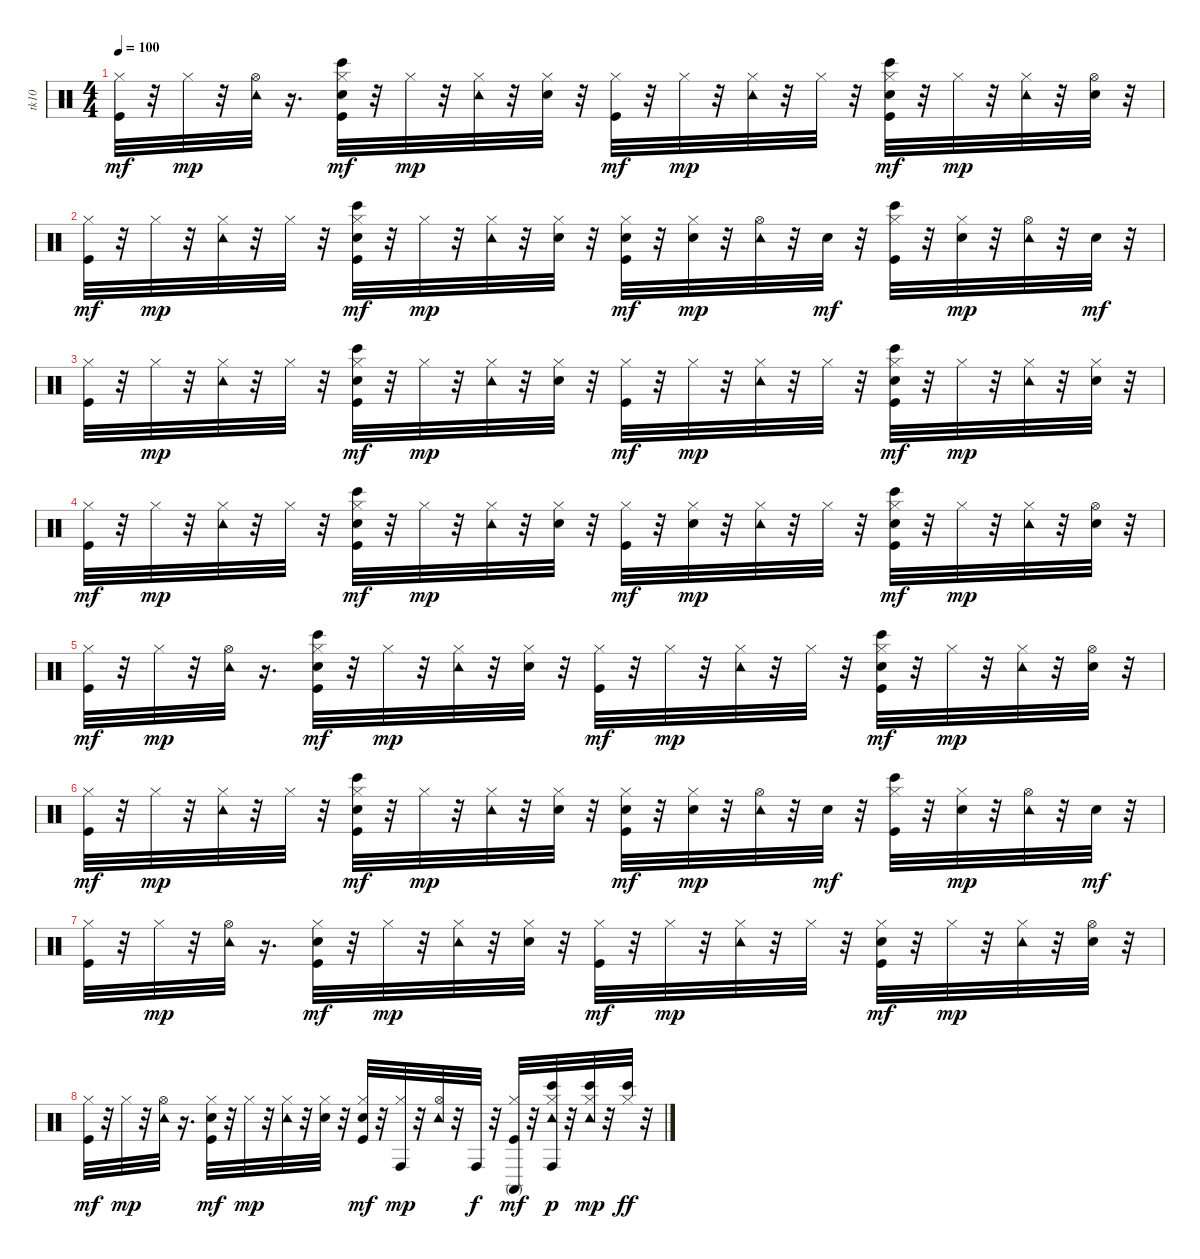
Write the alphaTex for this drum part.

\track ("tk10" "tk10") {instrument percussion}
\staff {score}
\articulation defaults
\ts (4 4)
\tempo 100
\clef neutral
\ks c
("Kick (hit)" "Hi-Hat (closed)").32{dy mf} r.32 "Hi-Hat (closed)".32{dy mp} r.32 ("Hi-Hat (open)" "Tambourine (hit)").32 r.16{d} ("Kick (hit)" "Snare (hit) 2" "Hi-Hat (closed)" "Bongo High (hit)").32{dy mf} r.32 "Hi-Hat (closed)".32{dy mp} r.32 ("Hi-Hat (closed)" "Tambourine (hit)").32 r.32 ("Snare (hit) 2" "Hi-Hat (closed)").32 r.32 ("Kick (hit)" "Hi-Hat (closed)").32{dy mf} r.32 "Hi-Hat (closed)".32{dy mp} r.32 ("Hi-Hat (closed)" "Tambourine (hit)").32 r.32 "Hi-Hat (closed)".32 r.32 ("Kick (hit)" "Snare (hit) 2" "Hi-Hat (closed)" "Bongo High (hit)").32{dy mf} r.32 "Hi-Hat (closed)".32{dy mp} r.32 ("Hi-Hat (closed)" "Tambourine (hit)").32 r.32 ("Snare (hit) 2" "Hi-Hat (open)").32 r.32 |
("Kick (hit)" "Hi-Hat (closed)").32{dy mf} r.32 "Hi-Hat (closed)".32{dy mp} r.32 ("Hi-Hat (closed)" "Tambourine (hit)").32 r.32 "Hi-Hat (closed)".32 r.32 ("Kick (hit)" "Snare (hit) 2" "Hi-Hat (closed)" "Bongo High (hit)").32{dy mf} r.32 "Hi-Hat (closed)".32{dy mp} r.32 ("Hi-Hat (closed)" "Tambourine (hit)").32 r.32 ("Snare (hit) 2" "Hi-Hat (closed)").32 r.32 ("Kick (hit)" "Snare (hit) 2" "Hi-Hat (closed)").32{dy mf} r.32 ("Snare (hit) 2" "Hi-Hat (closed)").32{dy mp} r.32 ("Hi-Hat (open)" "Tambourine (hit)").32 r.32 "Snare (hit) 2".32{dy mf} r.32 ("Kick (hit)" "Hi-Hat (closed)" "Bongo High (hit)").32 r.32 ("Snare (hit) 2" "Hi-Hat (closed)").32{dy mp} r.32 ("Hi-Hat (open)" "Tambourine (hit)").32 r.32 "Snare (hit) 2".32{dy mf} r.32 |
("Kick (hit)" "Hi-Hat (closed)").32 r.32 "Hi-Hat (closed)".32{dy mp} r.32 ("Hi-Hat (closed)" "Tambourine (hit)").32 r.32 "Hi-Hat (closed)".32 r.32 ("Kick (hit)" "Snare (hit) 2" "Hi-Hat (closed)" "Bongo High (hit)").32{dy mf} r.32 "Hi-Hat (closed)".32{dy mp} r.32 ("Hi-Hat (closed)" "Tambourine (hit)").32 r.32 ("Snare (hit) 2" "Hi-Hat (closed)").32 r.32 ("Kick (hit)" "Hi-Hat (closed)").32{dy mf} r.32 "Hi-Hat (closed)".32{dy mp} r.32 ("Hi-Hat (closed)" "Tambourine (hit)").32 r.32 "Hi-Hat (closed)".32 r.32 ("Kick (hit)" "Snare (hit) 2" "Hi-Hat (closed)" "Bongo High (hit)").32{dy mf} r.32 "Hi-Hat (closed)".32{dy mp} r.32 ("Hi-Hat (closed)" "Tambourine (hit)").32 r.32 ("Snare (hit) 2" "Hi-Hat (closed)").32 r.32 |
("Kick (hit)" "Hi-Hat (closed)").32{dy mf} r.32 "Hi-Hat (closed)".32{dy mp} r.32 ("Hi-Hat (closed)" "Tambourine (hit)").32 r.32 "Hi-Hat (closed)".32 r.32 ("Kick (hit)" "Snare (hit) 2" "Hi-Hat (closed)" "Bongo High (hit)").32{dy mf} r.32 "Hi-Hat (closed)".32{dy mp} r.32 ("Hi-Hat (closed)" "Tambourine (hit)").32 r.32 ("Snare (hit) 2" "Hi-Hat (closed)").32 r.32 ("Kick (hit)" "Hi-Hat (closed)").32{dy mf} r.32 ("Snare (hit) 2" "Hi-Hat (closed)").32{dy mp} r.32 ("Hi-Hat (closed)" "Tambourine (hit)").32 r.32 "Hi-Hat (closed)".32 r.32 ("Kick (hit)" "Snare (hit) 2" "Hi-Hat (closed)" "Bongo High (hit)").32{dy mf} r.32 "Hi-Hat (closed)".32{dy mp} r.32 ("Hi-Hat (closed)" "Tambourine (hit)").32 r.32 ("Snare (hit) 2" "Hi-Hat (open)").32 r.32 |
("Kick (hit)" "Hi-Hat (closed)").32{dy mf} r.32 "Hi-Hat (closed)".32{dy mp} r.32 ("Hi-Hat (open)" "Tambourine (hit)").32 r.16{d} ("Kick (hit)" "Snare (hit) 2" "Hi-Hat (closed)" "Bongo High (hit)").32{dy mf} r.32 "Hi-Hat (closed)".32{dy mp} r.32 ("Hi-Hat (closed)" "Tambourine (hit)").32 r.32 ("Snare (hit) 2" "Hi-Hat (closed)").32 r.32 ("Kick (hit)" "Hi-Hat (closed)").32{dy mf} r.32 "Hi-Hat (closed)".32{dy mp} r.32 ("Hi-Hat (closed)" "Tambourine (hit)").32 r.32 "Hi-Hat (closed)".32 r.32 ("Kick (hit)" "Snare (hit) 2" "Hi-Hat (closed)" "Bongo High (hit)").32{dy mf} r.32 "Hi-Hat (closed)".32{dy mp} r.32 ("Hi-Hat (closed)" "Tambourine (hit)").32 r.32 ("Snare (hit) 2" "Hi-Hat (open)").32 r.32 |
("Kick (hit)" "Hi-Hat (closed)").32{dy mf} r.32 "Hi-Hat (closed)".32{dy mp} r.32 ("Hi-Hat (closed)" "Tambourine (hit)").32 r.32 "Hi-Hat (closed)".32 r.32 ("Kick (hit)" "Snare (hit) 2" "Hi-Hat (closed)" "Bongo High (hit)").32{dy mf} r.32 "Hi-Hat (closed)".32{dy mp} r.32 ("Hi-Hat (closed)" "Tambourine (hit)").32 r.32 ("Snare (hit) 2" "Hi-Hat (closed)").32 r.32 ("Kick (hit)" "Snare (hit) 2" "Hi-Hat (closed)").32{dy mf} r.32 ("Snare (hit) 2" "Hi-Hat (closed)").32{dy mp} r.32 ("Hi-Hat (open)" "Tambourine (hit)").32 r.32 "Snare (hit) 2".32{dy mf} r.32 ("Kick (hit)" "Hi-Hat (closed)" "Bongo High (hit)").32 r.32 ("Snare (hit) 2" "Hi-Hat (closed)").32{dy mp} r.32 ("Hi-Hat (open)" "Tambourine (hit)").32 r.32 "Snare (hit) 2".32{dy mf} r.32 |
("Kick (hit)" "Hi-Hat (closed)").32 r.32 "Hi-Hat (closed)".32{dy mp} r.32 ("Hi-Hat (open)" "Tambourine (hit)").32 r.16{d} ("Kick (hit)" "Snare (hit) 2" "Hi-Hat (closed)").32{dy mf} r.32 "Hi-Hat (closed)".32{dy mp} r.32 ("Hi-Hat (closed)" "Tambourine (hit)").32 r.32 ("Snare (hit) 2" "Hi-Hat (closed)").32 r.32 ("Kick (hit)" "Hi-Hat (closed)").32{dy mf} r.32 "Hi-Hat (closed)".32{dy mp} r.32 ("Hi-Hat (closed)" "Tambourine (hit)").32 r.32 "Hi-Hat (closed)".32 r.32 ("Kick (hit)" "Snare (hit) 2" "Hi-Hat (closed)").32{dy mf} r.32 "Hi-Hat (closed)".32{dy mp} r.32 ("Hi-Hat (closed)" "Tambourine (hit)").32 r.32 ("Snare (hit) 2" "Hi-Hat (open)").32 r.32 |
("Kick (hit)" "Hi-Hat (closed)").32{dy mf} r.32 "Hi-Hat (closed)".32{dy mp} r.32 ("Hi-Hat (open)" "Tambourine (hit)").32 r.16{d} ("Kick (hit)" "Snare (hit) 2" "Hi-Hat (closed)").32{dy mf} r.32 "Hi-Hat (closed)".32{dy mp} r.32 ("Hi-Hat (closed)" "Tambourine (hit)").32 r.32 ("Snare (hit) 2" "Hi-Hat (closed)").32 r.32 ("Kick (hit)" "Snare (hit) 2" "Hi-Hat (closed)").32{dy mf} r.32 ("Hi-Hat (closed)" "Conga high (hit)").32{dy mp} r.32 ("Hi-Hat (open)" "Tambourine (hit)").32 r.32 "Conga high (hit)".32{dy f} r.32 ("Kick (hit)" "Hi-Hat (closed)" "Conga high (mute)").32{dy mf} r.32 ("Hi-Hat (closed)" "Bongo High (hit)" "Conga high (hit)" "Tambourine (hit)").32{dy p} r.32 ("Hi-Hat (closed)" "Bongo High (hit)" "Tambourine (hit)").32{dy mp} r.32 ("Hi-Hat (closed)" "Bongo High (hit)").32{dy ff} r.32
